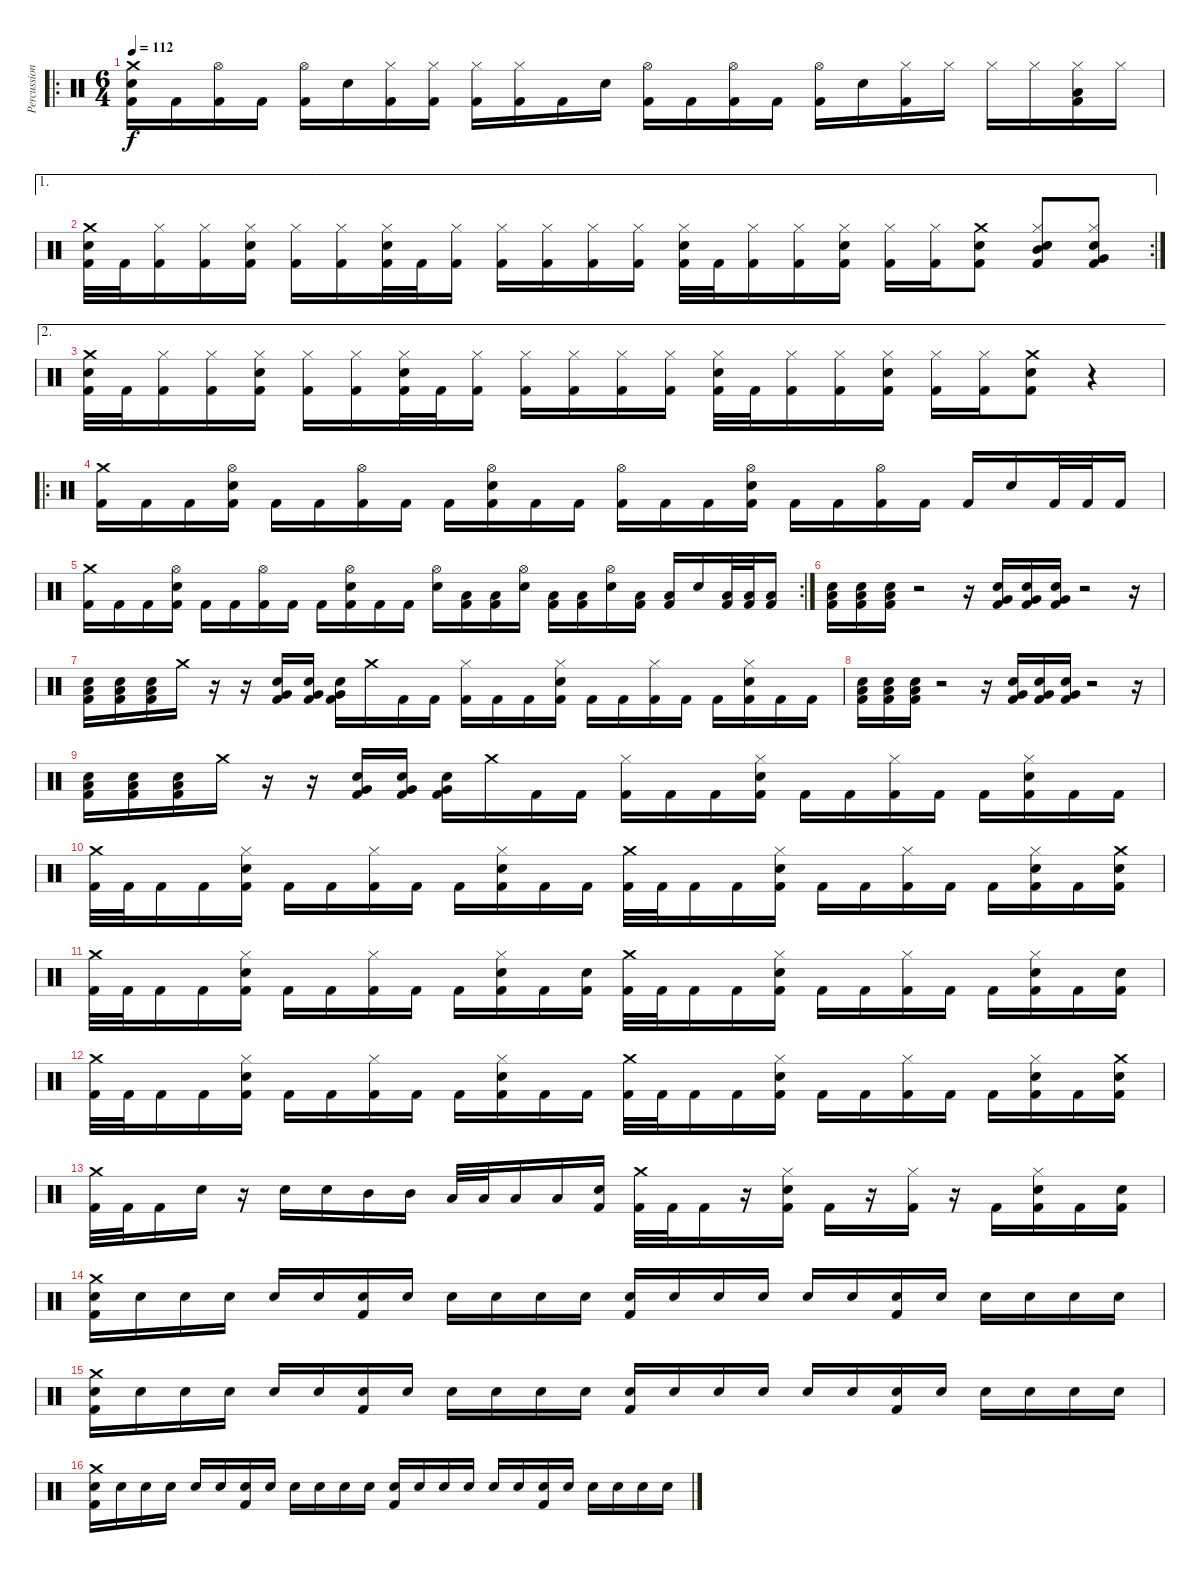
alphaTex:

\track ("Percussion" "Percussion") {instrument percussion}
\staff {score}
\articulation defaults
\ro
\ts (6 4)
\tempo 112
\clef neutral
\ks c
("Crash medium (hit)" "Snare (hit) 2" "Kick (hit) 2").16{dy f} "Kick (hit) 2".16 ("Hi-Hat (open)" "Kick (hit) 2").16 "Kick (hit) 2".16 ("Hi-Hat (open)" "Kick (hit) 2").16 "Snare (hit) 2".16 ("Hi-Hat (closed)" "Kick (hit) 2").16 ("Hi-Hat (closed)" "Kick (hit) 2").16 ("Hi-Hat (closed)" "Kick (hit) 2").16 ("Hi-Hat (closed)" "Kick (hit) 2").16 "Kick (hit) 2".16 "Snare (hit) 2".16 ("Hi-Hat (open)" "Kick (hit) 2").16 "Kick (hit) 2".16 ("Hi-Hat (open)" "Kick (hit) 2").16 "Kick (hit) 2".16 ("Hi-Hat (open)" "Kick (hit) 2").16 "Snare (hit) 2".16 ("Hi-Hat (closed)" "Kick (hit) 2").16 "Hi-Hat (closed)".16 "Hi-Hat (closed)".16 "Hi-Hat (closed)".16 ("Hi-Hat (closed)" "Low Tom (hit)" "Kick (hit) 2").16 "Hi-Hat (closed)".16 |
\ae 1
\rc 2
("Crash medium (hit)" "Snare (hit) 2" "Kick (hit) 2").32 "Kick (hit) 2".32 ("Hi-Hat (closed)" "Kick (hit) 2").16 ("Hi-Hat (closed)" "Kick (hit) 2").16 ("Hi-Hat (closed)" "Snare (hit) 2" "Kick (hit) 2").16 ("Hi-Hat (closed)" "Kick (hit) 2").16 ("Hi-Hat (closed)" "Kick (hit) 2").16 ("Hi-Hat (closed)" "Snare (hit) 2" "Kick (hit) 2").32 "Kick (hit) 2".32 ("Hi-Hat (closed)" "Kick (hit) 2").16 ("Hi-Hat (closed)" "Kick (hit) 2").16 ("Hi-Hat (closed)" "Kick (hit) 2").16 ("Hi-Hat (closed)" "Kick (hit) 2").16 ("Hi-Hat (closed)" "Kick (hit) 2").16 ("Hi-Hat (closed)" "Snare (hit) 2" "Kick (hit) 2").32 "Kick (hit) 2".32 ("Hi-Hat (closed)" "Kick (hit) 2").16 ("Hi-Hat (closed)" "Kick (hit) 2").16 ("Hi-Hat (closed)" "Snare (hit) 2" "Kick (hit) 2").16 ("Hi-Hat (closed)" "Kick (hit) 2").16 ("Hi-Hat (closed)" "Kick (hit) 2").16 ("Crash medium (hit)" "Snare (hit) 2" "Kick (hit) 2").8 ("Hi-Hat (closed)" "Snare (hit) 2" "Mid Tom (hit)" "Kick (hit) 2").8 ("Hi-Hat (closed)" "Snare (hit) 2" "Very Low Tom (hit)" "Kick (hit) 2").8 |
\ae 2
("Crash medium (hit)" "Snare (hit) 2" "Kick (hit) 2").32 "Kick (hit) 2".32 ("Hi-Hat (closed)" "Kick (hit) 2").16 ("Hi-Hat (closed)" "Kick (hit) 2").16 ("Hi-Hat (closed)" "Snare (hit) 2" "Kick (hit) 2").16 ("Hi-Hat (closed)" "Kick (hit) 2").16 ("Hi-Hat (closed)" "Kick (hit) 2").16 ("Hi-Hat (closed)" "Snare (hit) 2" "Kick (hit) 2").32 "Kick (hit) 2".32 ("Hi-Hat (closed)" "Kick (hit) 2").16 ("Hi-Hat (closed)" "Kick (hit) 2").16 ("Hi-Hat (closed)" "Kick (hit) 2").16 ("Hi-Hat (closed)" "Kick (hit) 2").16 ("Hi-Hat (closed)" "Kick (hit) 2").16 ("Hi-Hat (closed)" "Snare (hit) 2" "Kick (hit) 2").32 "Kick (hit) 2".32 ("Hi-Hat (closed)" "Kick (hit) 2").16 ("Hi-Hat (closed)" "Kick (hit) 2").16 ("Hi-Hat (closed)" "Snare (hit) 2" "Kick (hit) 2").16 ("Hi-Hat (closed)" "Kick (hit) 2").16 ("Hi-Hat (closed)" "Kick (hit) 2").16 ("Crash medium (hit)" "Snare (hit) 2" "Kick (hit) 2").8 r.4 |
\ro
("Crash medium (hit)" "Kick (hit) 2").16 "Kick (hit) 2".16 "Kick (hit) 2".16 ("Hi-Hat (open)" "Snare (hit) 2" "Kick (hit) 2").16 "Kick (hit) 2".16 "Kick (hit) 2".16 ("Hi-Hat (open)" "Kick (hit) 2").16 "Kick (hit) 2".16 "Kick (hit) 2".16 ("Hi-Hat (open)" "Snare (hit) 2" "Kick (hit) 2").16 "Kick (hit) 2".16 "Kick (hit) 2".16 ("Hi-Hat (open)" "Kick (hit) 2").16 "Kick (hit) 2".16 "Kick (hit) 2".16 ("Hi-Hat (open)" "Snare (hit) 2" "Kick (hit) 2").16 "Kick (hit) 2".16 "Kick (hit) 2".16 ("Hi-Hat (open)" "Kick (hit) 2").16 "Kick (hit) 2".16 "Kick (hit) 2".16 "Snare (hit) 2".16 "Kick (hit) 2".32 "Kick (hit) 2".32 "Kick (hit) 2".16 |
\rc 2
("Crash medium (hit)" "Kick (hit) 2").16 "Kick (hit) 2".16 "Kick (hit) 2".16 ("Hi-Hat (open)" "Snare (hit) 2" "Kick (hit) 2").16 "Kick (hit) 2".16 "Kick (hit) 2".16 ("Hi-Hat (open)" "Kick (hit) 2").16 "Kick (hit) 2".16 "Kick (hit) 2".16 ("Hi-Hat (open)" "Snare (hit) 2" "Kick (hit) 2").16 "Kick (hit) 2".16 "Kick (hit) 2".16 ("Hi-Hat (open)" "Snare (hit) 2").16 ("Low Tom (hit)" "Kick (hit) 2").16 ("Low Tom (hit)" "Kick (hit) 2").16 ("Hi-Hat (open)" "Snare (hit) 2").16 ("Low Tom (hit)" "Kick (hit) 2").16 ("Low Tom (hit)" "Kick (hit) 2").16 ("Hi-Hat (open)" "Snare (hit) 2").16 ("Low Tom (hit)" "Kick (hit) 2").16 ("Low Tom (hit)" "Kick (hit) 2").16 "Snare (hit) 2".16 ("Low Tom (hit)" "Kick (hit) 2").32 ("Low Tom (hit)" "Kick (hit) 2").32 ("Low Tom (hit)" "Kick (hit) 2").16 |
("Snare (hit) 2" "Low Floor Tom (hit)" "Kick (hit) 2").16 ("Snare (hit) 2" "Low Floor Tom (hit)" "Kick (hit) 2").16 ("Snare (hit) 2" "Low Floor Tom (hit)" "Kick (hit) 2").16 r.2 r.16 ("Snare (hit) 2" "Very Low Tom (hit)" "Kick (hit) 2").16 ("Snare (hit) 2" "Very Low Tom (hit)" "Kick (hit) 2").16 ("Snare (hit) 2" "Very Low Tom (hit)" "Kick (hit) 2").16 r.2 r.16 |
("Snare (hit) 2" "Low Floor Tom (hit)" "Kick (hit) 2").16 ("Snare (hit) 2" "Low Floor Tom (hit)" "Kick (hit) 2").16 ("Snare (hit) 2" "Low Floor Tom (hit)" "Kick (hit) 2").16 "Crash medium (hit)".16 r.16 r.16 ("Snare (hit) 2" "Very Low Tom (hit)" "Kick (hit) 2").16 ("Snare (hit) 2" "Very Low Tom (hit)" "Kick (hit) 2").16 ("Snare (hit) 2" "Very Low Tom (hit)" "Kick (hit) 2").16 "Crash medium (hit)".16 "Kick (hit) 2".16 "Kick (hit) 2".16 ("Hi-Hat (closed)" "Kick (hit) 2").16 "Kick (hit) 2".16 "Kick (hit) 2".16 ("Hi-Hat (closed)" "Snare (hit) 2" "Kick (hit) 2").16 "Kick (hit) 2".16 "Kick (hit) 2".16 ("Hi-Hat (closed)" "Kick (hit) 2").16 "Kick (hit) 2".16 "Kick (hit) 2".16 ("Hi-Hat (closed)" "Snare (hit) 2" "Kick (hit) 2").16 "Kick (hit) 2".16 "Kick (hit) 2".16 |
("Snare (hit) 2" "Low Floor Tom (hit)" "Kick (hit) 2").16 ("Snare (hit) 2" "Low Floor Tom (hit)" "Kick (hit) 2").16 ("Snare (hit) 2" "Low Floor Tom (hit)" "Kick (hit) 2").16 r.2 r.16 ("Snare (hit) 2" "Very Low Tom (hit)" "Kick (hit) 2").16 ("Snare (hit) 2" "Very Low Tom (hit)" "Kick (hit) 2").16 ("Snare (hit) 2" "Very Low Tom (hit)" "Kick (hit) 2").16 r.2 r.16 |
("Snare (hit) 2" "Low Floor Tom (hit)" "Kick (hit) 2").16 ("Snare (hit) 2" "Low Floor Tom (hit)" "Kick (hit) 2").16 ("Snare (hit) 2" "Low Floor Tom (hit)" "Kick (hit) 2").16 "Crash medium (hit)".16 r.16 r.16 ("Snare (hit) 2" "Very Low Tom (hit)" "Kick (hit) 2").16 ("Snare (hit) 2" "Very Low Tom (hit)" "Kick (hit) 2").16 ("Snare (hit) 2" "Very Low Tom (hit)" "Kick (hit) 2").16 "Crash medium (hit)".16 "Kick (hit) 2".16 "Kick (hit) 2".16 ("Hi-Hat (closed)" "Kick (hit) 2").16 "Kick (hit) 2".16 "Kick (hit) 2".16 ("Hi-Hat (closed)" "Snare (hit) 2" "Kick (hit) 2").16 "Kick (hit) 2".16 "Kick (hit) 2".16 ("Hi-Hat (closed)" "Kick (hit) 2").16 "Kick (hit) 2".16 "Kick (hit) 2".16 ("Hi-Hat (closed)" "Snare (hit) 2" "Kick (hit) 2").16 "Kick (hit) 2".16 "Kick (hit) 2".16 |
("Crash medium (hit)" "Kick (hit) 2").32 "Kick (hit) 2".32 "Kick (hit) 2".16 "Kick (hit) 2".16 ("Hi-Hat (closed)" "Snare (hit) 2" "Kick (hit) 2").16 "Kick (hit) 2".16 "Kick (hit) 2".16 ("Hi-Hat (closed)" "Kick (hit) 2").16 "Kick (hit) 2".16 "Kick (hit) 2".16 ("Hi-Hat (closed)" "Snare (hit) 2" "Kick (hit) 2").16 "Kick (hit) 2".16 "Kick (hit) 2".16 ("Crash medium (hit)" "Kick (hit) 2").32 "Kick (hit) 2".32 "Kick (hit) 2".16 "Kick (hit) 2".16 ("Hi-Hat (closed)" "Snare (hit) 2" "Kick (hit) 2").16 "Kick (hit) 2".16 "Kick (hit) 2".16 ("Hi-Hat (closed)" "Kick (hit) 2").16 "Kick (hit) 2".16 "Kick (hit) 2".16 ("Hi-Hat (closed)" "Snare (hit) 2" "Kick (hit) 2").16 "Kick (hit) 2".16 ("Crash medium (hit)" "Snare (hit) 2" "Kick (hit) 2").16 |
("Crash medium (hit)" "Kick (hit) 2").32 "Kick (hit) 2".32 "Kick (hit) 2".16 "Kick (hit) 2".16 ("Hi-Hat (closed)" "Snare (hit) 2" "Kick (hit) 2").16 "Kick (hit) 2".16 "Kick (hit) 2".16 ("Hi-Hat (closed)" "Kick (hit) 2").16 "Kick (hit) 2".16 "Kick (hit) 2".16 ("Hi-Hat (closed)" "Snare (hit) 2" "Kick (hit) 2").16 "Kick (hit) 2".16 ("Snare (hit) 2" "Kick (hit) 2").16 ("Crash medium (hit)" "Kick (hit) 2").32 "Kick (hit) 2".32 "Kick (hit) 2".16 "Kick (hit) 2".16 ("Hi-Hat (closed)" "Snare (hit) 2" "Kick (hit) 2").16 "Kick (hit) 2".16 "Kick (hit) 2".16 ("Hi-Hat (closed)" "Kick (hit) 2").16 "Kick (hit) 2".16 "Kick (hit) 2".16 ("Hi-Hat (closed)" "Snare (hit) 2" "Kick (hit) 2").16 "Kick (hit) 2".16 ("Snare (hit) 2" "Kick (hit) 2").16 |
("Crash medium (hit)" "Kick (hit) 2").32 "Kick (hit) 2".32 "Kick (hit) 2".16 "Kick (hit) 2".16 ("Hi-Hat (closed)" "Snare (hit) 2" "Kick (hit) 2").16 "Kick (hit) 2".16 "Kick (hit) 2".16 ("Hi-Hat (closed)" "Kick (hit) 2").16 "Kick (hit) 2".16 "Kick (hit) 2".16 ("Hi-Hat (closed)" "Snare (hit) 2" "Kick (hit) 2").16 "Kick (hit) 2".16 "Kick (hit) 2".16 ("Crash medium (hit)" "Kick (hit) 2").32 "Kick (hit) 2".32 "Kick (hit) 2".16 "Kick (hit) 2".16 ("Hi-Hat (closed)" "Snare (hit) 2" "Kick (hit) 2").16 "Kick (hit) 2".16 "Kick (hit) 2".16 ("Hi-Hat (closed)" "Kick (hit) 2").16 "Kick (hit) 2".16 "Kick (hit) 2".16 ("Hi-Hat (closed)" "Snare (hit) 2" "Kick (hit) 2").16 "Kick (hit) 2".16 ("Crash medium (hit)" "Snare (hit) 2" "Kick (hit) 2").16 |
("Crash medium (hit)" "Kick (hit) 2").32 "Kick (hit) 2".32 "Kick (hit) 2".16 "Snare (hit) 2".16 r.16 "Snare (hit) 2".16 "Snare (hit) 2".16 "Mid Tom (hit)".16 "Mid Tom (hit)".16 "Low Tom (hit)".32 "Low Tom (hit)".32 "Low Tom (hit)".16 "Low Tom (hit)".16 ("Snare (hit) 2" "Kick (hit) 2").16 ("Crash medium (hit)" "Kick (hit) 2").32 "Kick (hit) 2".32 "Kick (hit) 2".16 r.16 ("Hi-Hat (closed)" "Snare (hit) 2" "Kick (hit) 2").16 "Kick (hit) 2".16 r.16 ("Hi-Hat (closed)" "Kick (hit) 2").16 r.16 "Kick (hit) 2".16 ("Hi-Hat (closed)" "Snare (hit) 2" "Kick (hit) 2").16 "Kick (hit) 2".16 ("Snare (hit) 2" "Kick (hit) 2").16 |
("Crash medium (hit)" "Snare (hit) 2" "Kick (hit) 2").16{volume 8} "Snare (hit) 2".16 "Snare (hit) 2".16 "Snare (hit) 2".16 "Snare (hit) 2".16 "Snare (hit) 2".16 ("Snare (hit) 2" "Kick (hit) 2").16 "Snare (hit) 2".16 "Snare (hit) 2".16 "Snare (hit) 2".16 "Snare (hit) 2".16 "Snare (hit) 2".16 ("Snare (hit) 2" "Kick (hit) 2").16{volume 8} "Snare (hit) 2".16 "Snare (hit) 2".16 "Snare (hit) 2".16 "Snare (hit) 2".16 "Snare (hit) 2".16 ("Snare (hit) 2" "Kick (hit) 2").16 "Snare (hit) 2".16 "Snare (hit) 2".16 "Snare (hit) 2".16 "Snare (hit) 2".16 "Snare (hit) 2".16 |
("Crash medium (hit)" "Snare (hit) 2" "Kick (hit) 2").16{volume 8} "Snare (hit) 2".16 "Snare (hit) 2".16 "Snare (hit) 2".16 "Snare (hit) 2".16 "Snare (hit) 2".16 ("Snare (hit) 2" "Kick (hit) 2").16 "Snare (hit) 2".16 "Snare (hit) 2".16 "Snare (hit) 2".16 "Snare (hit) 2".16 "Snare (hit) 2".16 ("Snare (hit) 2" "Kick (hit) 2").16{volume 8} "Snare (hit) 2".16 "Snare (hit) 2".16 "Snare (hit) 2".16 "Snare (hit) 2".16 "Snare (hit) 2".16 ("Snare (hit) 2" "Kick (hit) 2").16 "Snare (hit) 2".16 "Snare (hit) 2".16 "Snare (hit) 2".16 "Snare (hit) 2".16 "Snare (hit) 2".16 |
("Crash medium (hit)" "Snare (hit) 2" "Kick (hit) 2").16{volume 8} "Snare (hit) 2".16 "Snare (hit) 2".16 "Snare (hit) 2".16 "Snare (hit) 2".16 "Snare (hit) 2".16 ("Snare (hit) 2" "Kick (hit) 2").16 "Snare (hit) 2".16 "Snare (hit) 2".16 "Snare (hit) 2".16 "Snare (hit) 2".16 "Snare (hit) 2".16 ("Snare (hit) 2" "Kick (hit) 2").16{volume 8} "Snare (hit) 2".16 "Snare (hit) 2".16 "Snare (hit) 2".16 "Snare (hit) 2".16 "Snare (hit) 2".16 ("Snare (hit) 2" "Kick (hit) 2").16 "Snare (hit) 2".16 "Snare (hit) 2".16 "Snare (hit) 2".16 "Snare (hit) 2".16 "Snare (hit) 2".16
